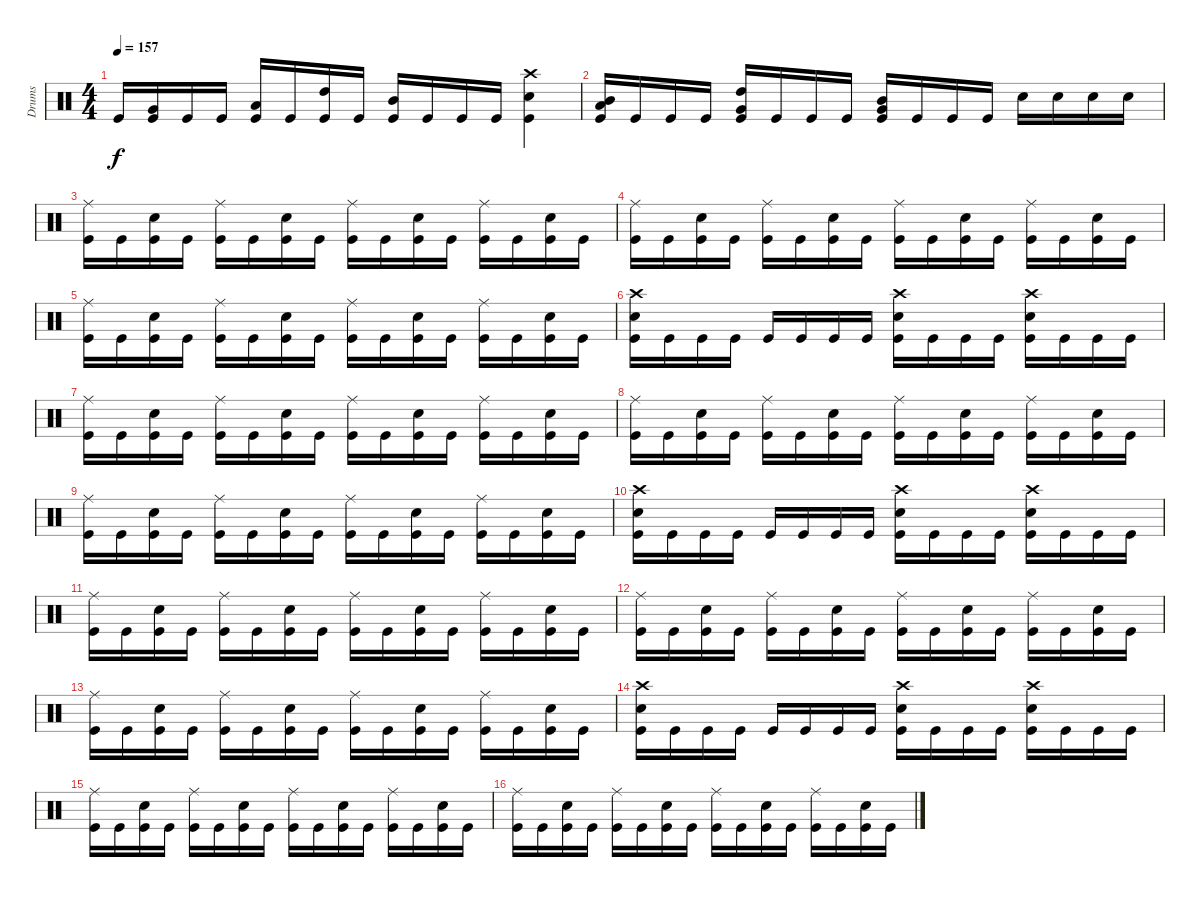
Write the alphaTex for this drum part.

\track ("Drums" "Drums") {instrument percussion}
\staff {score}
\articulation defaults
\ts (4 4)
\tempo 157
\clef neutral
\ks c "Kick (hit)".16{dy f}
("Very Low Tom (hit)" "Kick (hit)").16 "Kick (hit)".16 "Kick (hit)".16 ("Low Tom (hit)" "Kick (hit)").16 "Kick (hit)".16 ("High Tom (hit)" "Kick (hit)").16 "Kick (hit)".16 ("Mid Tom (hit)" "Kick (hit)").16 "Kick (hit)".16 "Kick (hit)".16 "Kick (hit)".16 ("Snare (hit) 2" "Crash high (hit)" "Kick (hit)").4 |
("Mid Tom (hit)" "Low Tom (hit)" "Kick (hit)").16 "Kick (hit)".16 "Kick (hit)".16 "Kick (hit)".16 ("High Tom (hit)" "Very Low Tom (hit)" "Kick (hit)").16 "Kick (hit)".16 "Kick (hit)".16 "Kick (hit)".16 ("Mid Tom (hit)" "Very Low Tom (hit)" "Kick (hit)").16 "Kick (hit)".16 "Kick (hit)".16 "Kick (hit)".16 "Snare (hit) 2".16 "Snare (hit) 2".16 "Snare (hit) 2".16 "Snare (hit) 2".16 |
("Ride (middle)" "Kick (hit)").16 "Kick (hit)".16 ("Snare (hit) 2" "Kick (hit)").16 "Kick (hit)".16 ("Ride (middle)" "Kick (hit)").16 "Kick (hit)".16 ("Snare (hit) 2" "Kick (hit)").16 "Kick (hit)".16 ("Ride (middle)" "Kick (hit)").16 "Kick (hit)".16 ("Snare (hit) 2" "Kick (hit)").16 "Kick (hit)".16 ("Ride (middle)" "Kick (hit)").16 "Kick (hit)".16 ("Snare (hit) 2" "Kick (hit)").16 "Kick (hit)".16 |
("Ride (middle)" "Kick (hit)").16 "Kick (hit)".16 ("Snare (hit) 2" "Kick (hit)").16 "Kick (hit)".16 ("Ride (middle)" "Kick (hit)").16 "Kick (hit)".16 ("Snare (hit) 2" "Kick (hit)").16 "Kick (hit)".16 ("Ride (middle)" "Kick (hit)").16 "Kick (hit)".16 ("Snare (hit) 2" "Kick (hit)").16 "Kick (hit)".16 ("Ride (middle)" "Kick (hit)").16 "Kick (hit)".16 ("Snare (hit) 2" "Kick (hit)").16 "Kick (hit)".16 |
("Ride (middle)" "Kick (hit)").16 "Kick (hit)".16 ("Snare (hit) 2" "Kick (hit)").16 "Kick (hit)".16 ("Ride (middle)" "Kick (hit)").16 "Kick (hit)".16 ("Snare (hit) 2" "Kick (hit)").16 "Kick (hit)".16 ("Ride (middle)" "Kick (hit)").16 "Kick (hit)".16 ("Snare (hit) 2" "Kick (hit)").16 "Kick (hit)".16 ("Ride (middle)" "Kick (hit)").16 "Kick (hit)".16 ("Snare (hit) 2" "Kick (hit)").16 "Kick (hit)".16 |
("Snare (hit) 2" "Crash high (hit)" "Kick (hit)").16 "Kick (hit)".16 "Kick (hit)".16 "Kick (hit)".16 "Kick (hit)".16 "Kick (hit)".16 "Kick (hit)".16 "Kick (hit)".16 ("Snare (hit) 2" "Crash high (hit)" "Kick (hit)").16 "Kick (hit)".16 "Kick (hit)".16 "Kick (hit)".16 ("Snare (hit) 2" "Crash high (hit)" "Kick (hit)").16 "Kick (hit)".16 "Kick (hit)".16 "Kick (hit)".16 |
("Ride (middle)" "Kick (hit)").16 "Kick (hit)".16 ("Snare (hit) 2" "Kick (hit)").16 "Kick (hit)".16 ("Ride (middle)" "Kick (hit)").16 "Kick (hit)".16 ("Snare (hit) 2" "Kick (hit)").16 "Kick (hit)".16 ("Ride (middle)" "Kick (hit)").16 "Kick (hit)".16 ("Snare (hit) 2" "Kick (hit)").16 "Kick (hit)".16 ("Ride (middle)" "Kick (hit)").16 "Kick (hit)".16 ("Snare (hit) 2" "Kick (hit)").16 "Kick (hit)".16 |
("Ride (middle)" "Kick (hit)").16 "Kick (hit)".16 ("Snare (hit) 2" "Kick (hit)").16 "Kick (hit)".16 ("Ride (middle)" "Kick (hit)").16 "Kick (hit)".16 ("Snare (hit) 2" "Kick (hit)").16 "Kick (hit)".16 ("Ride (middle)" "Kick (hit)").16 "Kick (hit)".16 ("Snare (hit) 2" "Kick (hit)").16 "Kick (hit)".16 ("Ride (middle)" "Kick (hit)").16 "Kick (hit)".16 ("Snare (hit) 2" "Kick (hit)").16 "Kick (hit)".16 |
("Ride (middle)" "Kick (hit)").16 "Kick (hit)".16 ("Snare (hit) 2" "Kick (hit)").16 "Kick (hit)".16 ("Ride (middle)" "Kick (hit)").16 "Kick (hit)".16 ("Snare (hit) 2" "Kick (hit)").16 "Kick (hit)".16 ("Ride (middle)" "Kick (hit)").16 "Kick (hit)".16 ("Snare (hit) 2" "Kick (hit)").16 "Kick (hit)".16 ("Ride (middle)" "Kick (hit)").16 "Kick (hit)".16 ("Snare (hit) 2" "Kick (hit)").16 "Kick (hit)".16 |
("Snare (hit) 2" "Crash high (hit)" "Kick (hit)").16 "Kick (hit)".16 "Kick (hit)".16 "Kick (hit)".16 "Kick (hit)".16 "Kick (hit)".16 "Kick (hit)".16 "Kick (hit)".16 ("Snare (hit) 2" "Crash high (hit)" "Kick (hit)").16 "Kick (hit)".16 "Kick (hit)".16 "Kick (hit)".16 ("Snare (hit) 2" "Crash high (hit)" "Kick (hit)").16 "Kick (hit)".16 "Kick (hit)".16 "Kick (hit)".16 |
("Ride (middle)" "Kick (hit)").16 "Kick (hit)".16 ("Snare (hit) 2" "Kick (hit)").16 "Kick (hit)".16 ("Ride (middle)" "Kick (hit)").16 "Kick (hit)".16 ("Snare (hit) 2" "Kick (hit)").16 "Kick (hit)".16 ("Ride (middle)" "Kick (hit)").16 "Kick (hit)".16 ("Snare (hit) 2" "Kick (hit)").16 "Kick (hit)".16 ("Ride (middle)" "Kick (hit)").16 "Kick (hit)".16 ("Snare (hit) 2" "Kick (hit)").16 "Kick (hit)".16 |
("Ride (middle)" "Kick (hit)").16 "Kick (hit)".16 ("Snare (hit) 2" "Kick (hit)").16 "Kick (hit)".16 ("Ride (middle)" "Kick (hit)").16 "Kick (hit)".16 ("Snare (hit) 2" "Kick (hit)").16 "Kick (hit)".16 ("Ride (middle)" "Kick (hit)").16 "Kick (hit)".16 ("Snare (hit) 2" "Kick (hit)").16 "Kick (hit)".16 ("Ride (middle)" "Kick (hit)").16 "Kick (hit)".16 ("Snare (hit) 2" "Kick (hit)").16 "Kick (hit)".16 |
("Ride (middle)" "Kick (hit)").16 "Kick (hit)".16 ("Snare (hit) 2" "Kick (hit)").16 "Kick (hit)".16 ("Ride (middle)" "Kick (hit)").16 "Kick (hit)".16 ("Snare (hit) 2" "Kick (hit)").16 "Kick (hit)".16 ("Ride (middle)" "Kick (hit)").16 "Kick (hit)".16 ("Snare (hit) 2" "Kick (hit)").16 "Kick (hit)".16 ("Ride (middle)" "Kick (hit)").16 "Kick (hit)".16 ("Snare (hit) 2" "Kick (hit)").16 "Kick (hit)".16 |
("Snare (hit) 2" "Crash high (hit)" "Kick (hit)").16 "Kick (hit)".16 "Kick (hit)".16 "Kick (hit)".16 "Kick (hit)".16 "Kick (hit)".16 "Kick (hit)".16 "Kick (hit)".16 ("Snare (hit) 2" "Crash high (hit)" "Kick (hit)").16 "Kick (hit)".16 "Kick (hit)".16 "Kick (hit)".16 ("Snare (hit) 2" "Crash high (hit)" "Kick (hit)").16 "Kick (hit)".16 "Kick (hit)".16 "Kick (hit)".16 |
("Ride (middle)" "Kick (hit)").16 "Kick (hit)".16 ("Snare (hit) 2" "Kick (hit)").16 "Kick (hit)".16 ("Ride (middle)" "Kick (hit)").16 "Kick (hit)".16 ("Snare (hit) 2" "Kick (hit)").16 "Kick (hit)".16 ("Ride (middle)" "Kick (hit)").16 "Kick (hit)".16 ("Snare (hit) 2" "Kick (hit)").16 "Kick (hit)".16 ("Ride (middle)" "Kick (hit)").16 "Kick (hit)".16 ("Snare (hit) 2" "Kick (hit)").16 "Kick (hit)".16 |
("Ride (middle)" "Kick (hit)").16 "Kick (hit)".16 ("Snare (hit) 2" "Kick (hit)").16 "Kick (hit)".16 ("Ride (middle)" "Kick (hit)").16 "Kick (hit)".16 ("Snare (hit) 2" "Kick (hit)").16 "Kick (hit)".16 ("Ride (middle)" "Kick (hit)").16 "Kick (hit)".16 ("Snare (hit) 2" "Kick (hit)").16 "Kick (hit)".16 ("Ride (middle)" "Kick (hit)").16 "Kick (hit)".16 ("Snare (hit) 2" "Kick (hit)").16 "Kick (hit)".16
